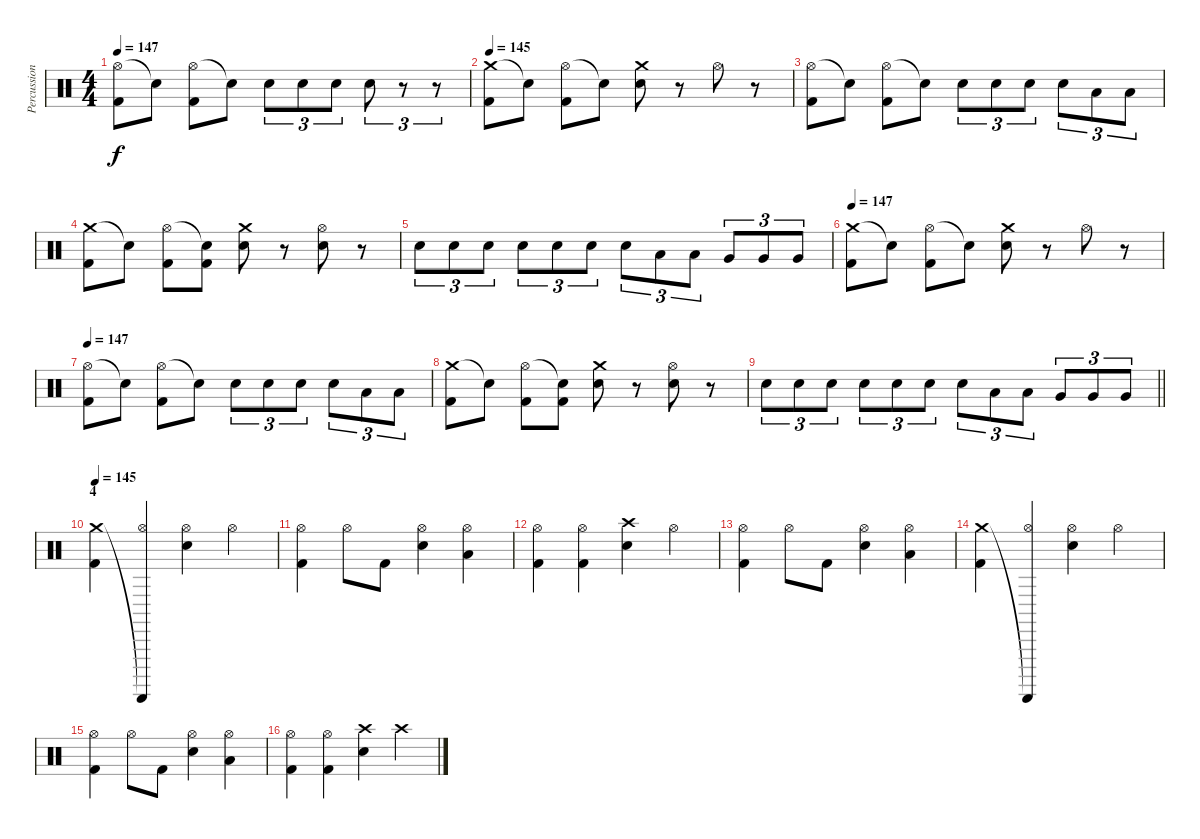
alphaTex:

\track ("Percussion" "Percussion") {instrument percussion}
\staff {score}
\articulation defaults
\ts (4 4)
\tempo 147
\clef neutral
\ks c
("Hi-Hat (open)" "Kick (hit) 2").8{dy f} "Snare (hit)"{t}.8 ("Hi-Hat (open)" "Kick (hit) 2").8 "Snare (hit)"{t}.8 "Electric Snare (hit)".8{tu (3 2)} "Electric Snare (hit)".8{tu (3 2)} "Electric Snare (hit)".8{tu (3 2)} "Electric Snare (hit)".8{tu (3 2)} r.8{tu (3 2)} r.8{tu (3 2)} |
\tempo 145
("Crash medium (hit)" "Kick (hit) 2").8 "Snare (hit)"{t}.8 ("Hi-Hat (open)" "Kick (hit) 2").8 "Snare (hit)"{t}.8 ("Crash medium (hit)" "Electric Snare (hit)").8 r.8 "Hi-Hat (open)".8 r.8 |
("Hi-Hat (open)" "Kick (hit) 2").8 "Snare (hit)"{t}.8 ("Hi-Hat (open)" "Kick (hit) 2").8 "Snare (hit)"{t}.8 "Electric Snare (hit)".8{tu (3 2)} "Electric Snare (hit)".8{tu (3 2)} "Electric Snare (hit)".8{tu (3 2)} "Electric Snare (hit)".8{tu (3 2)} "Low Tom (hit)".8{tu (3 2)} "Low Tom (hit)".8{tu (3 2)} |
("Crash medium (hit)" "Kick (hit) 2").8 "Snare (hit)"{t}.8 ("Hi-Hat (open)" "Kick (hit) 2").8 ("Snare (hit)"{t} "Kick (hit) 2").8 ("Crash medium (hit)" "Electric Snare (hit)").8 r.8 ("Hi-Hat (open)" "Electric Snare (hit)").8 r.8 |
"Electric Snare (hit)".8{tu (3 2)} "Electric Snare (hit)".8{tu (3 2)} "Electric Snare (hit)".8{tu (3 2)} "Electric Snare (hit)".8{tu (3 2)} "Electric Snare (hit)".8{tu (3 2)} "Electric Snare (hit)".8{tu (3 2)} "Electric Snare (hit)".8{tu (3 2)} "Low Tom (hit)".8{tu (3 2)} "Low Tom (hit)".8{tu (3 2)} "Very Low Tom (hit)".8{tu (3 2)} "Very Low Tom (hit)".8{tu (3 2)} "Very Low Tom (hit)".8{tu (3 2)} |
\tempo 147
("Crash medium (hit)" "Kick (hit) 2").8 "Snare (hit)"{t}.8 ("Hi-Hat (open)" "Kick (hit) 2").8 "Snare (hit)"{t}.8 ("Crash medium (hit)" "Electric Snare (hit)").8 r.8 "Hi-Hat (open)".8 r.8 |
\tempo 147
("Hi-Hat (open)" "Kick (hit) 2").8 "Snare (hit)"{t}.8 ("Hi-Hat (open)" "Kick (hit) 2").8 "Snare (hit)"{t}.8 "Electric Snare (hit)".8{tu (3 2)} "Electric Snare (hit)".8{tu (3 2)} "Electric Snare (hit)".8{tu (3 2)} "Electric Snare (hit)".8{tu (3 2)} "Low Tom (hit)".8{tu (3 2)} "Low Tom (hit)".8{tu (3 2)} |
("Crash medium (hit)" "Kick (hit) 2").8 "Snare (hit)"{t}.8 ("Hi-Hat (open)" "Kick (hit) 2").8 ("Snare (hit)"{t} "Kick (hit) 2").8 ("Crash medium (hit)" "Electric Snare (hit)").8 r.8 ("Hi-Hat (open)" "Electric Snare (hit)").8 r.8 |
\barLineRight lightlight "Electric Snare (hit)".8{tu (3 2)} "Electric Snare (hit)".8{tu (3 2)} "Electric Snare (hit)".8{tu (3 2)} "Electric Snare (hit)".8{tu (3 2)} "Electric Snare (hit)".8{tu (3 2)} "Electric Snare (hit)".8{tu (3 2)} "Electric Snare (hit)".8{tu (3 2)} "Low Tom (hit)".8{tu (3 2)} "Low Tom (hit)".8{tu (3 2)} "Very Low Tom (hit)".8{tu (3 2)} "Very Low Tom (hit)".8{tu (3 2)} "Very Low Tom (hit)".8{tu (3 2)}
|
\section ("" "4")
\tempo 145
("Crash medium (hit)" "Kick (hit) 2").4 ("Guiro (scrap-return)"{t} "Hi-Hat (open)").4 ("Hi-Hat (open)" "Electric Snare (hit)").4 "Hi-Hat (open)".4 |
("Hi-Hat (open)" "Kick (hit) 2").4 "Hi-Hat (open)".8 "Kick (hit) 2".8 ("Hi-Hat (open)" "Electric Snare (hit)").4 ("Hi-Hat (open)" "Low Tom (hit)").4 |
("Hi-Hat (open)" "Kick (hit) 2").4 ("Hi-Hat (open)" "Kick (hit) 2").4 ("Crash high (hit)" "Electric Snare (hit)").4 "Hi-Hat (open)".4 |
("Hi-Hat (open)" "Kick (hit) 2").4 "Hi-Hat (open)".8 "Kick (hit) 2".8 ("Hi-Hat (open)" "Electric Snare (hit)").4 ("Hi-Hat (open)" "Low Tom (hit)").4 |
("Crash medium (hit)" "Kick (hit) 2").4 ("Guiro (scrap-return)"{t} "Hi-Hat (open)").4 ("Hi-Hat (open)" "Electric Snare (hit)").4 "Hi-Hat (open)".4 |
("Hi-Hat (open)" "Kick (hit) 2").4 "Hi-Hat (open)".8 "Kick (hit) 2".8 ("Hi-Hat (open)" "Electric Snare (hit)").4 ("Hi-Hat (open)" "Low Tom (hit)").4 |
("Hi-Hat (open)" "Kick (hit) 2").4 ("Hi-Hat (open)" "Kick (hit) 2").4 ("Crash high (hit)" "Electric Snare (hit)").4 "Crash high (hit)".4
